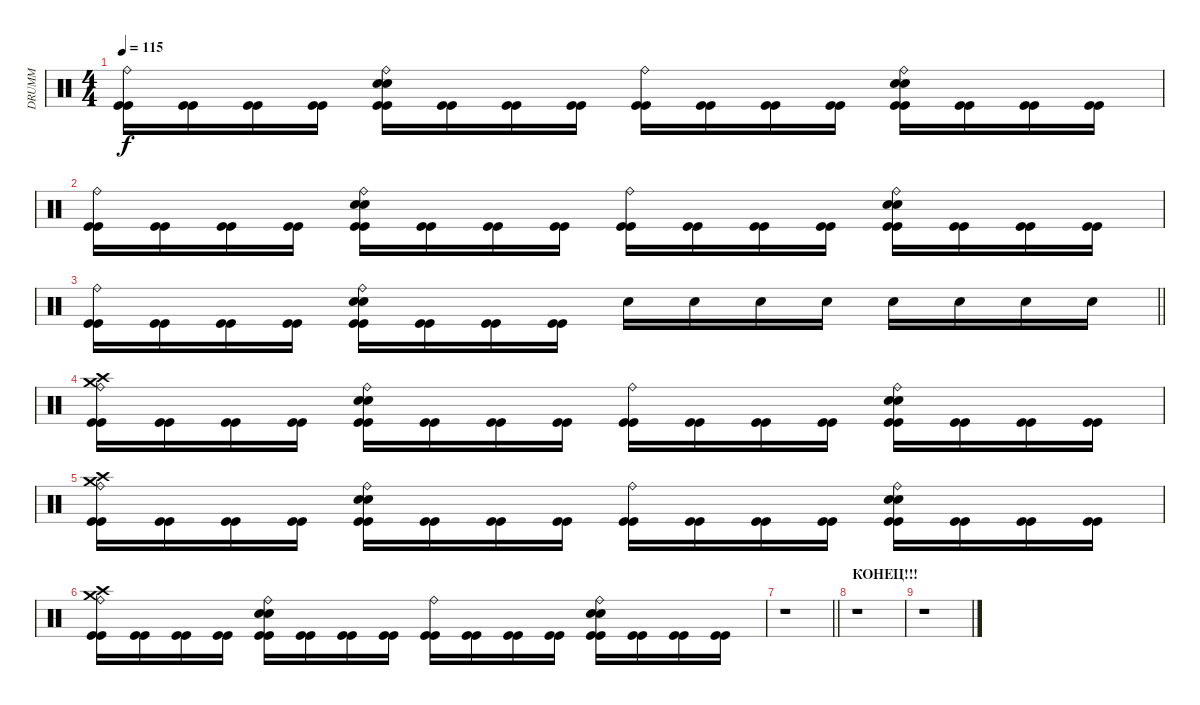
\track ("DRUMM" "DRUMM") {instrument percussion}
\staff {score}
\articulation defaults
\ts (4 4)
\tempo 115
\clef neutral
\ks c
("Ride (bell)" "Kick (hit)" "Kick (hit)").16{dy f} ("Kick (hit)" "Kick (hit)").16 ("Kick (hit)" "Kick (hit)").16 ("Kick (hit)" "Kick (hit)").16 ("Ride (bell)" "Snare (hit) 2" "Snare (hit) 2" "Kick (hit)" "Kick (hit)").16 ("Kick (hit)" "Kick (hit)").16 ("Kick (hit)" "Kick (hit)").16 ("Kick (hit)" "Kick (hit)").16 ("Ride (bell)" "Kick (hit)" "Kick (hit)").16 ("Kick (hit)" "Kick (hit)").16 ("Kick (hit)" "Kick (hit)").16 ("Kick (hit)" "Kick (hit)").16 ("Ride (bell)" "Snare (hit) 2" "Snare (hit) 2" "Kick (hit)" "Kick (hit)").16 ("Kick (hit)" "Kick (hit)").16 ("Kick (hit)" "Kick (hit)").16 ("Kick (hit)" "Kick (hit)").16 |
("Ride (bell)" "Kick (hit)" "Kick (hit)").16 ("Kick (hit)" "Kick (hit)").16 ("Kick (hit)" "Kick (hit)").16 ("Kick (hit)" "Kick (hit)").16 ("Ride (bell)" "Snare (hit) 2" "Snare (hit) 2" "Kick (hit)" "Kick (hit)").16 ("Kick (hit)" "Kick (hit)").16 ("Kick (hit)" "Kick (hit)").16 ("Kick (hit)" "Kick (hit)").16 ("Ride (bell)" "Kick (hit)" "Kick (hit)").16 ("Kick (hit)" "Kick (hit)").16 ("Kick (hit)" "Kick (hit)").16 ("Kick (hit)" "Kick (hit)").16 ("Ride (bell)" "Snare (hit) 2" "Snare (hit) 2" "Kick (hit)" "Kick (hit)").16 ("Kick (hit)" "Kick (hit)").16 ("Kick (hit)" "Kick (hit)").16 ("Kick (hit)" "Kick (hit)").16 |
\barLineRight lightlight
("Ride (bell)" "Kick (hit)" "Kick (hit)").16 ("Kick (hit)" "Kick (hit)").16 ("Kick (hit)" "Kick (hit)").16 ("Kick (hit)" "Kick (hit)").16 ("Ride (bell)" "Snare (hit) 2" "Snare (hit) 2" "Kick (hit)" "Kick (hit)").16 ("Kick (hit)" "Kick (hit)").16 ("Kick (hit)" "Kick (hit)").16 ("Kick (hit)" "Kick (hit)").16 "Electric Snare (hit)".16 "Electric Snare (hit)".16 "Electric Snare (hit)".16 "Electric Snare (hit)".16 "Electric Snare (hit)".16 "Electric Snare (hit)".16 "Electric Snare (hit)".16 "Electric Snare (hit)".16 |
("Crash high (hit)" "Ride (bell)" "Crash medium (hit)" "Kick (hit)" "Kick (hit)").16 ("Kick (hit)" "Kick (hit)").16 ("Kick (hit)" "Kick (hit)").16 ("Kick (hit)" "Kick (hit)").16 ("Ride (bell)" "Snare (hit) 2" "Snare (hit) 2" "Kick (hit)" "Kick (hit)").16 ("Kick (hit)" "Kick (hit)").16 ("Kick (hit)" "Kick (hit)").16 ("Kick (hit)" "Kick (hit)").16 ("Ride (bell)" "Kick (hit)" "Kick (hit)").16 ("Kick (hit)" "Kick (hit)").16 ("Kick (hit)" "Kick (hit)").16 ("Kick (hit)" "Kick (hit)").16 ("Ride (bell)" "Snare (hit) 2" "Snare (hit) 2" "Kick (hit)" "Kick (hit)").16 ("Kick (hit)" "Kick (hit)").16 ("Kick (hit)" "Kick (hit)").16 ("Kick (hit)" "Kick (hit)").16 |
("Crash high (hit)" "Ride (bell)" "Crash medium (hit)" "Kick (hit)" "Kick (hit)").16 ("Kick (hit)" "Kick (hit)").16 ("Kick (hit)" "Kick (hit)").16 ("Kick (hit)" "Kick (hit)").16 ("Ride (bell)" "Snare (hit) 2" "Snare (hit) 2" "Kick (hit)" "Kick (hit)").16 ("Kick (hit)" "Kick (hit)").16 ("Kick (hit)" "Kick (hit)").16 ("Kick (hit)" "Kick (hit)").16 ("Ride (bell)" "Kick (hit)" "Kick (hit)").16 ("Kick (hit)" "Kick (hit)").16 ("Kick (hit)" "Kick (hit)").16 ("Kick (hit)" "Kick (hit)").16 ("Ride (bell)" "Snare (hit) 2" "Snare (hit) 2" "Kick (hit)" "Kick (hit)").16 ("Kick (hit)" "Kick (hit)").16 ("Kick (hit)" "Kick (hit)").16 ("Kick (hit)" "Kick (hit)").16 |
("Crash high (hit)" "Ride (bell)" "Crash medium (hit)" "Kick (hit)" "Kick (hit)").16 ("Kick (hit)" "Kick (hit)").16 ("Kick (hit)" "Kick (hit)").16 ("Kick (hit)" "Kick (hit)").16 ("Ride (bell)" "Snare (hit) 2" "Snare (hit) 2" "Kick (hit)" "Kick (hit)").16 ("Kick (hit)" "Kick (hit)").16 ("Kick (hit)" "Kick (hit)").16 ("Kick (hit)" "Kick (hit)").16 ("Ride (bell)" "Kick (hit)" "Kick (hit)").16 ("Kick (hit)" "Kick (hit)").16 ("Kick (hit)" "Kick (hit)").16 ("Kick (hit)" "Kick (hit)").16 ("Ride (bell)" "Snare (hit) 2" "Snare (hit) 2" "Kick (hit)" "Kick (hit)").16 ("Kick (hit)" "Kick (hit)").16 ("Kick (hit)" "Kick (hit)").16 ("Kick (hit)" "Kick (hit)").16 |
\barLineRight lightlight
r.1 |
\section ("" "КОНЕЦ!!!")
r.1 |
r.1
